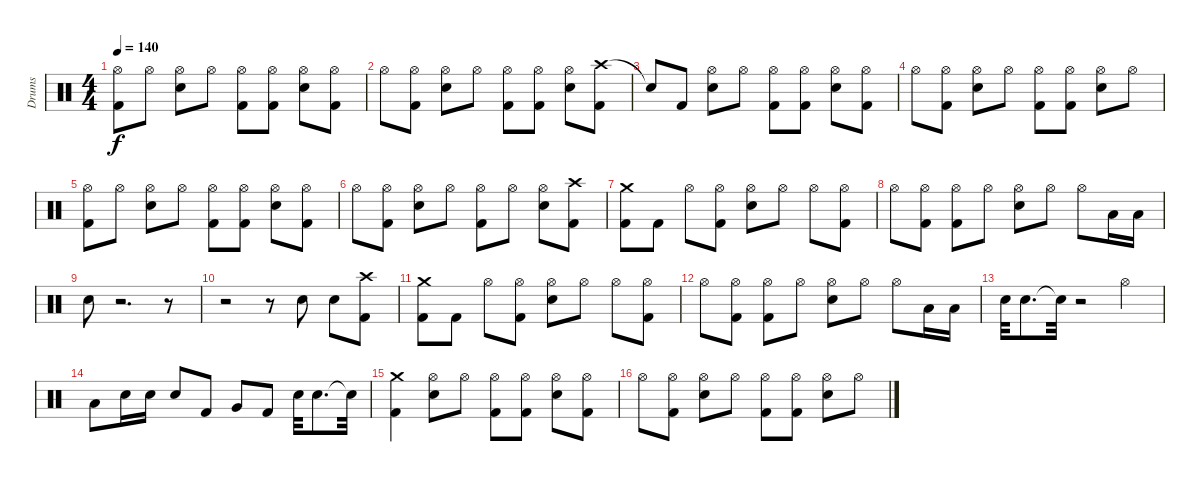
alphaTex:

\track ("Drums" "Drums") {instrument percussion}
\staff {score}
\articulation defaults
\ts (4 4)
\tempo 140
\clef neutral
\ks c
("Hi-Hat (open)" "Kick (hit) 2").8{dy f} "Hi-Hat (open)".8 ("Snare (hit) 2" "Hi-Hat (open)").8 "Hi-Hat (open)".8 ("Hi-Hat (open)" "Kick (hit) 2").8 ("Hi-Hat (open)" "Kick (hit) 2").8 ("Snare (hit) 2" "Hi-Hat (open)").8 ("Hi-Hat (open)" "Kick (hit) 2").8 |
"Hi-Hat (open)".8 ("Hi-Hat (open)" "Kick (hit) 2").8 ("Snare (hit) 2" "Hi-Hat (open)").8 "Hi-Hat (open)".8 ("Hi-Hat (open)" "Kick (hit) 2").8 ("Hi-Hat (open)" "Kick (hit) 2").8 ("Snare (hit) 2" "Hi-Hat (open)").8 ("Crash high (hit)" "Kick (hit) 2").8 |
"Snare (hit)"{t}.8 "Kick (hit) 2".8 ("Hi-Hat (open)" "Snare (hit) 2").8 "Hi-Hat (open)".8 ("Hi-Hat (open)" "Kick (hit) 2").8 ("Hi-Hat (open)" "Kick (hit) 2").8 ("Hi-Hat (open)" "Snare (hit) 2").8 ("Hi-Hat (open)" "Kick (hit) 2").8 |
"Hi-Hat (open)".8 ("Hi-Hat (open)" "Kick (hit) 2").8 ("Snare (hit) 2" "Hi-Hat (open)").8 "Hi-Hat (open)".8 ("Hi-Hat (open)" "Kick (hit) 2").8 ("Hi-Hat (open)" "Kick (hit) 2").8 ("Snare (hit) 2" "Hi-Hat (open)").8 "Hi-Hat (open)".8 |
("Hi-Hat (open)" "Kick (hit) 2").8 "Hi-Hat (open)".8 ("Hi-Hat (open)" "Snare (hit) 2").8 "Hi-Hat (open)".8 ("Hi-Hat (open)" "Kick (hit) 2").8 ("Hi-Hat (open)" "Kick (hit) 2").8 ("Hi-Hat (open)" "Snare (hit) 2").8 ("Hi-Hat (open)" "Kick (hit) 2").8 |
"Hi-Hat (open)".8 ("Hi-Hat (open)" "Kick (hit) 2").8 ("Hi-Hat (open)" "Snare (hit) 2").8 "Hi-Hat (open)".8 ("Kick (hit) 2" "Hi-Hat (open)").8 "Hi-Hat (open)".8 ("Hi-Hat (open)" "Snare (hit) 2").8 ("Crash high (hit)" "Kick (hit) 2").8 |
("Crash medium (hit)" "Kick (hit) 2").8 "Kick (hit) 2".8 "Hi-Hat (open)".8 ("Hi-Hat (open)" "Kick (hit) 2").8 ("Snare (hit) 2" "Hi-Hat (open)").8 "Hi-Hat (open)".8 "Hi-Hat (open)".8 ("Hi-Hat (open)" "Kick (hit) 2").8 |
"Hi-Hat (open)".8 ("Kick (hit) 2" "Hi-Hat (open)").8 ("Hi-Hat (open)" "Kick (hit) 2").8 "Hi-Hat (open)".8 ("Snare (hit) 2" "Hi-Hat (open)").8 "Hi-Hat (open)".8 "Hi-Hat (open)".8 "Low Tom (hit)".16 "Low Tom (hit)".16 |
"Snare (hit) 2".8 r.2{d} r.8 |
r.2 r.8 "Snare (hit) 2".8 "Snare (hit) 2".8 ("Kick (hit) 2" "Crash high (hit)").8 |
("Crash medium (hit)" "Kick (hit) 2").8 "Kick (hit) 2".8 "Hi-Hat (open)".8 ("Hi-Hat (open)" "Kick (hit) 2").8 ("Hi-Hat (open)" "Snare (hit) 2").8 "Hi-Hat (open)".8 "Hi-Hat (open)".8 ("Hi-Hat (open)" "Kick (hit) 2").8 |
"Hi-Hat (open)".8 ("Hi-Hat (open)" "Kick (hit) 2").8 ("Hi-Hat (open)" "Kick (hit) 2").8 "Hi-Hat (open)".8 ("Hi-Hat (open)" "Snare (hit) 2").8 "Hi-Hat (open)".8 "Hi-Hat (open)".8 "Low Tom (hit)".16 "Low Tom (hit)".16 |
"Snare (hit) 2".32 "Snare (hit) 2".8{d} "Snare (hit)"{t}.32 r.2 "Hi-Hat (open)".4 |
"Low Tom (hit)".8 "Snare (hit) 2".16 "Snare (hit) 2".16 "Snare (hit) 2".8 "Kick (hit) 2".8 "Very Low Tom (hit)".8 "Kick (hit) 2".8 "Snare (hit) 2".32 "Snare (hit) 2".8{d} "Snare (hit)"{t}.32 |
("Crash medium (hit)" "Kick (hit) 2").4 ("Hi-Hat (open)" "Snare (hit) 2").8 "Hi-Hat (open)".8 ("Hi-Hat (open)" "Kick (hit) 2").8 ("Hi-Hat (open)" "Kick (hit) 2").8 ("Hi-Hat (open)" "Snare (hit) 2").8 ("Kick (hit) 2" "Hi-Hat (open)").8 |
"Hi-Hat (open)".8 ("Hi-Hat (open)" "Kick (hit) 2").8 ("Hi-Hat (open)" "Snare (hit) 2").8 "Hi-Hat (open)".8 ("Hi-Hat (open)" "Kick (hit) 2").8 ("Hi-Hat (open)" "Kick (hit) 2").8 ("Hi-Hat (open)" "Snare (hit) 2").8 "Hi-Hat (open)".8
